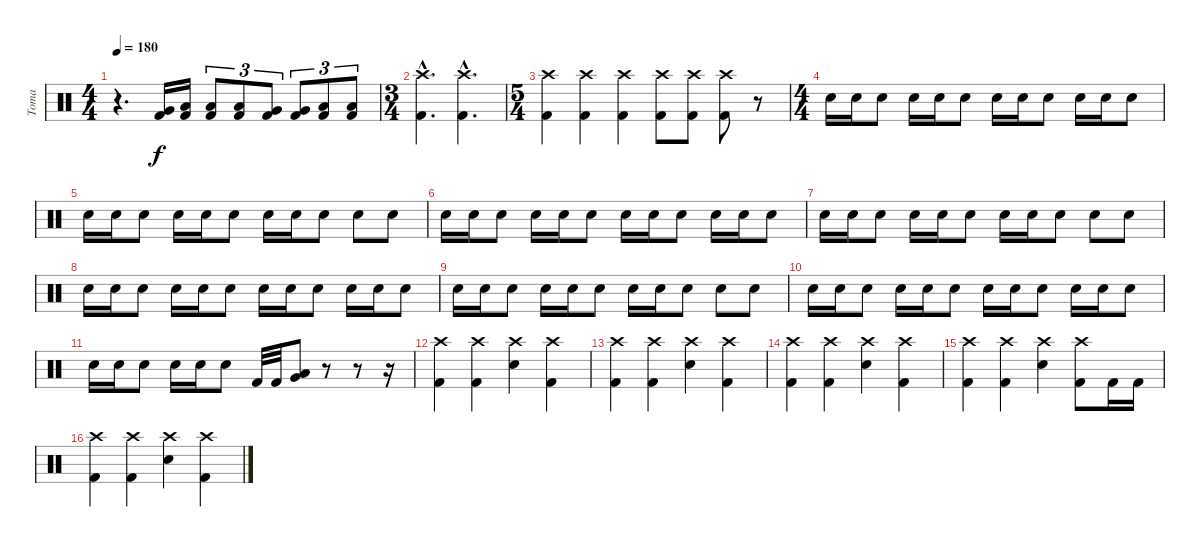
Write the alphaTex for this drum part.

\track ("Toma" "Toma") {instrument percussion}
\staff {score}
\articulation defaults
\ts (4 4)
\tempo 180
\clef neutral
\ks c
r.4{d dy f} ("Kick (hit) 2" "Very Low Tom (hit)").16 ("Kick (hit) 2" "Low Floor Tom (hit)").16 ("Kick (hit) 2" "Low Tom (hit)").8{tu (3 2)} ("Kick (hit) 2" "Low Tom (hit)").8{tu (3 2)} ("Kick (hit) 2" "Very Low Tom (hit)").8{tu (3 2)} ("Kick (hit) 2" "Very Low Tom (hit)").8{tu (3 2)} ("Kick (hit) 2" "Low Floor Tom (hit)").8{tu (3 2)} ("Kick (hit) 2" "Low Floor Tom (hit)").8{tu (3 2)} |
\ts (3 4)
("Crash high (hit)"{hac} "Kick (hit) 2"{hac}).4{d} ("Crash high (hit)"{hac} "Kick (hit) 2"{hac}).4{d} |
\ts (5 4)
("Crash high (hit)" "Kick (hit) 2").4 ("Crash high (hit)" "Kick (hit) 2").4 ("Crash high (hit)" "Kick (hit) 2").4 ("Crash high (hit)" "Kick (hit) 2").8 ("Crash high (hit)" "Kick (hit) 2").8 ("Crash high (hit)" "Kick (hit) 2").8 r.8 |
\ts (4 4)
"Electric Snare (hit)".16 "Electric Snare (hit)".16 "Electric Snare (hit)".8 "Electric Snare (hit)".16 "Electric Snare (hit)".16 "Electric Snare (hit)".8 "Electric Snare (hit)".16 "Electric Snare (hit)".16 "Electric Snare (hit)".8 "Electric Snare (hit)".16 "Electric Snare (hit)".16 "Electric Snare (hit)".8 |
"Electric Snare (hit)".16 "Electric Snare (hit)".16 "Electric Snare (hit)".8 "Electric Snare (hit)".16 "Electric Snare (hit)".16 "Electric Snare (hit)".8 "Electric Snare (hit)".16 "Electric Snare (hit)".16 "Electric Snare (hit)".8 "Electric Snare (hit)".8 "Electric Snare (hit)".8 |
"Electric Snare (hit)".16 "Electric Snare (hit)".16 "Electric Snare (hit)".8 "Electric Snare (hit)".16 "Electric Snare (hit)".16 "Electric Snare (hit)".8 "Electric Snare (hit)".16 "Electric Snare (hit)".16 "Electric Snare (hit)".8 "Electric Snare (hit)".16 "Electric Snare (hit)".16 "Electric Snare (hit)".8 |
"Electric Snare (hit)".16 "Electric Snare (hit)".16 "Electric Snare (hit)".8 "Electric Snare (hit)".16 "Electric Snare (hit)".16 "Electric Snare (hit)".8 "Electric Snare (hit)".16 "Electric Snare (hit)".16 "Electric Snare (hit)".8 "Electric Snare (hit)".8 "Electric Snare (hit)".8 |
"Electric Snare (hit)".16 "Electric Snare (hit)".16 "Electric Snare (hit)".8 "Electric Snare (hit)".16 "Electric Snare (hit)".16 "Electric Snare (hit)".8 "Electric Snare (hit)".16 "Electric Snare (hit)".16 "Electric Snare (hit)".8 "Electric Snare (hit)".16 "Electric Snare (hit)".16 "Electric Snare (hit)".8 |
"Electric Snare (hit)".16 "Electric Snare (hit)".16 "Electric Snare (hit)".8 "Electric Snare (hit)".16 "Electric Snare (hit)".16 "Electric Snare (hit)".8 "Electric Snare (hit)".16 "Electric Snare (hit)".16 "Electric Snare (hit)".8 "Electric Snare (hit)".8 "Electric Snare (hit)".8 |
"Electric Snare (hit)".16 "Electric Snare (hit)".16 "Electric Snare (hit)".8 "Electric Snare (hit)".16 "Electric Snare (hit)".16 "Electric Snare (hit)".8 "Electric Snare (hit)".16 "Electric Snare (hit)".16 "Electric Snare (hit)".8 "Electric Snare (hit)".16 "Electric Snare (hit)".16 "Electric Snare (hit)".8 |
"Electric Snare (hit)".16 "Electric Snare (hit)".16 "Electric Snare (hit)".8 "Electric Snare (hit)".16 "Electric Snare (hit)".16 "Electric Snare (hit)".8 "Kick (hit) 2".32 "Kick (hit) 2".32 ("Low Floor Tom (hit)" "Very Low Tom (hit)").8 r.8 r.8 r.16 |
("Crash high (hit)" "Kick (hit) 2").4 ("Crash high (hit)" "Kick (hit) 2").4 ("Crash high (hit)" "Electric Snare (hit)").4 ("Crash high (hit)" "Kick (hit) 2").4 |
("Crash high (hit)" "Kick (hit) 2").4 ("Crash high (hit)" "Kick (hit) 2").4 ("Crash high (hit)" "Electric Snare (hit)").4 ("Crash high (hit)" "Kick (hit) 2").4 |
("Crash high (hit)" "Kick (hit) 2").4 ("Crash high (hit)" "Kick (hit) 2").4 ("Crash high (hit)" "Electric Snare (hit)").4 ("Crash high (hit)" "Kick (hit) 2").4 |
("Crash high (hit)" "Kick (hit) 2").4 ("Crash high (hit)" "Kick (hit) 2").4 ("Crash high (hit)" "Electric Snare (hit)").4 ("Crash high (hit)" "Kick (hit) 2").8 "Kick (hit) 2".16 "Kick (hit) 2".16 |
("Crash high (hit)" "Kick (hit) 2").4 ("Crash high (hit)" "Kick (hit) 2").4 ("Crash high (hit)" "Electric Snare (hit)").4 ("Crash high (hit)" "Kick (hit) 2").4
